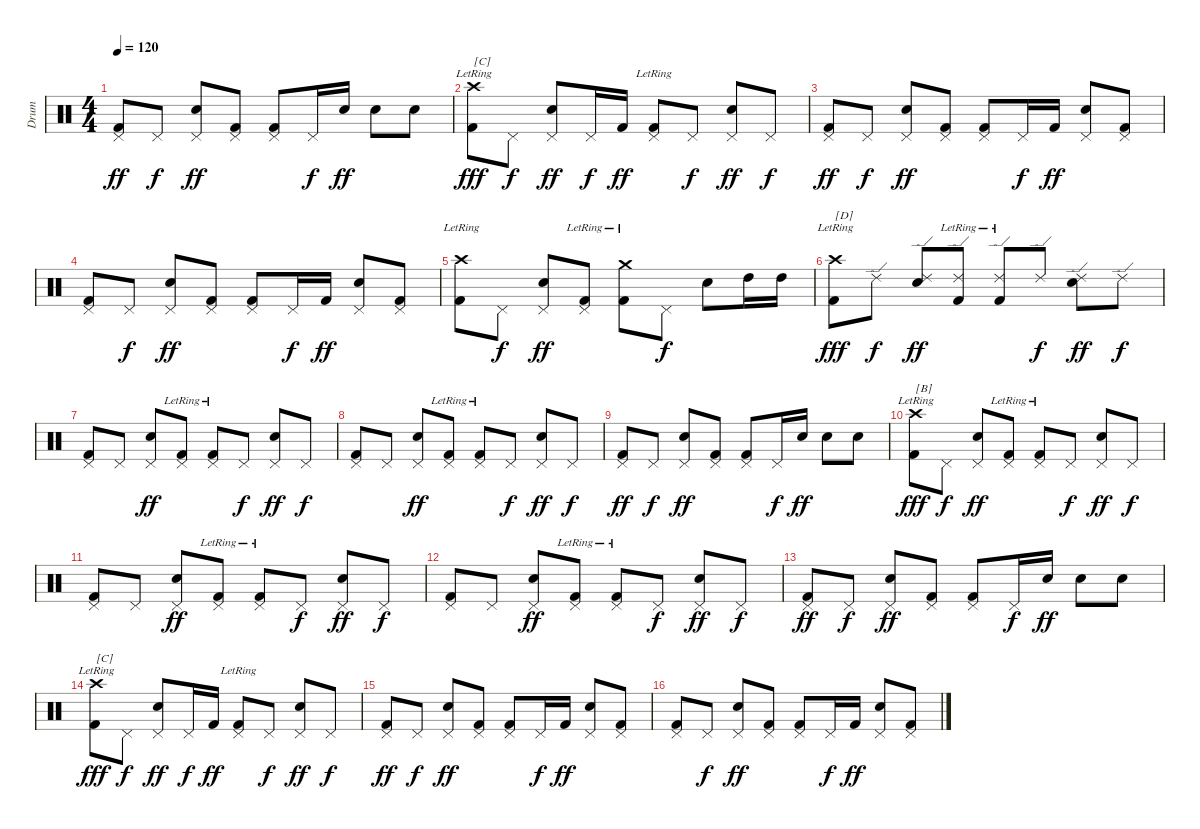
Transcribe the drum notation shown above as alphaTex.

\track ("Drum" "Drum") {instrument percussion}
\staff {score}
\articulation defaults
\ts (4 4)
\tempo 120
\clef neutral
\ks c
("Pedal Hi-Hat (hit)" "Kick (hit) 2").8{dy ff} "Pedal Hi-Hat (hit)".8{dy f} ("Pedal Hi-Hat (hit)" "Snare (hit) 2").8{dy ff} ("Pedal Hi-Hat (hit)" "Kick (hit) 2").8 ("Pedal Hi-Hat (hit)" "Kick (hit) 2").8 "Pedal Hi-Hat (hit)".16{dy f} "Snare (hit) 2".16{dy ff} "Snare (hit) 2".8 "Snare (hit) 2".8 |
("Crash high (hit)"{lr} "Kick (hit) 2"{lr}).8{txt "[C]" dy fff} "Pedal Hi-Hat (hit)".8{dy f} ("Pedal Hi-Hat (hit)" "Snare (hit) 2").8{dy ff} "Pedal Hi-Hat (hit)".16{dy f} "Kick (hit) 2".16{dy ff} ("Pedal Hi-Hat (hit)" "Kick (hit) 2"{lr}).8 "Pedal Hi-Hat (hit)".8{dy f} ("Pedal Hi-Hat (hit)" "Snare (hit) 2").8{dy ff} "Pedal Hi-Hat (hit)".8{dy f} |
("Pedal Hi-Hat (hit)" "Kick (hit) 2").8{dy ff} "Pedal Hi-Hat (hit)".8{dy f} ("Pedal Hi-Hat (hit)" "Snare (hit) 2").8{dy ff} ("Pedal Hi-Hat (hit)" "Kick (hit) 2").8 ("Pedal Hi-Hat (hit)" "Kick (hit) 2").8 "Pedal Hi-Hat (hit)".16{dy f} "Kick (hit) 2".16{dy ff} ("Pedal Hi-Hat (hit)" "Snare (hit) 2").8 ("Pedal Hi-Hat (hit)" "Kick (hit) 2").8 |
("Pedal Hi-Hat (hit)" "Kick (hit) 2").8 "Pedal Hi-Hat (hit)".8{dy f} ("Pedal Hi-Hat (hit)" "Snare (hit) 2").8{dy ff} ("Pedal Hi-Hat (hit)" "Kick (hit) 2").8 ("Pedal Hi-Hat (hit)" "Kick (hit) 2").8 "Pedal Hi-Hat (hit)".16{dy f} "Kick (hit) 2".16{dy ff} ("Pedal Hi-Hat (hit)" "Snare (hit) 2").8 ("Pedal Hi-Hat (hit)" "Kick (hit) 2").8 |
("Crash high (hit)" "Kick (hit) 2"{lr}).8 "Pedal Hi-Hat (hit)".8{dy f} ("Pedal Hi-Hat (hit)" "Snare (hit) 2").8{dy ff} ("Pedal Hi-Hat (hit)" "Kick (hit) 2"{lr}).8 ("Crash medium (hit)" "Kick (hit) 2"{lr}).8 "Pedal Hi-Hat (hit)".8{dy f} "Snare (hit) 2".8 "High Tom (hit)".16 "High Tom (hit)".16 |
("Crash high (hit)"{lr} "Kick (hit) 2"{lr}).8{txt "[D]" dy fff} "Ride (edge) 2".8{dy f} ("Ride (edge) 2" "Snare (hit) 2").8{dy ff} ("Ride (edge) 2" "Kick (hit) 2"{lr}).8 ("Ride (edge) 2" "Kick (hit) 2"{lr}).8 "Ride (edge) 2".8{dy f} ("Ride (edge) 2" "Snare (hit) 2").8{dy ff} "Ride (edge) 2".8{dy f} |
("Pedal Hi-Hat (hit)" "Kick (hit) 2").8 "Pedal Hi-Hat (hit)".8 ("Pedal Hi-Hat (hit)" "Snare (hit) 2").8{dy ff} ("Pedal Hi-Hat (hit)" "Kick (hit) 2"{lr}).8 ("Pedal Hi-Hat (hit)" "Kick (hit) 2"{lr}).8 "Pedal Hi-Hat (hit)".8{dy f} ("Pedal Hi-Hat (hit)" "Snare (hit) 2").8{dy ff} "Pedal Hi-Hat (hit)".8{dy f} |
("Pedal Hi-Hat (hit)" "Kick (hit) 2").8 "Pedal Hi-Hat (hit)".8 ("Pedal Hi-Hat (hit)" "Snare (hit) 2").8{dy ff} ("Pedal Hi-Hat (hit)" "Kick (hit) 2"{lr}).8 ("Pedal Hi-Hat (hit)" "Kick (hit) 2"{lr}).8 "Pedal Hi-Hat (hit)".8{dy f} ("Pedal Hi-Hat (hit)" "Snare (hit) 2").8{dy ff} "Pedal Hi-Hat (hit)".8{dy f} |
("Pedal Hi-Hat (hit)" "Kick (hit) 2").8{dy ff} "Pedal Hi-Hat (hit)".8{dy f} ("Pedal Hi-Hat (hit)" "Snare (hit) 2").8{dy ff} ("Pedal Hi-Hat (hit)" "Kick (hit) 2").8 ("Pedal Hi-Hat (hit)" "Kick (hit) 2").8 "Pedal Hi-Hat (hit)".16{dy f} "Snare (hit) 2".16{dy ff} "Snare (hit) 2".8 "Snare (hit) 2".8 |
("Crash high (hit)"{lr} "Kick (hit) 2"{lr}).8{txt "[B]" dy fff} "Pedal Hi-Hat (hit)".8{dy f} ("Pedal Hi-Hat (hit)" "Snare (hit) 2").8{dy ff} ("Pedal Hi-Hat (hit)" "Kick (hit) 2"{lr}).8 ("Pedal Hi-Hat (hit)" "Kick (hit) 2"{lr}).8 "Pedal Hi-Hat (hit)".8{dy f} ("Pedal Hi-Hat (hit)" "Snare (hit) 2").8{dy ff} "Pedal Hi-Hat (hit)".8{dy f} |
("Pedal Hi-Hat (hit)" "Kick (hit) 2").8 "Pedal Hi-Hat (hit)".8 ("Pedal Hi-Hat (hit)" "Snare (hit) 2").8{dy ff} ("Pedal Hi-Hat (hit)" "Kick (hit) 2"{lr}).8 ("Pedal Hi-Hat (hit)" "Kick (hit) 2"{lr}).8 "Pedal Hi-Hat (hit)".8{dy f} ("Pedal Hi-Hat (hit)" "Snare (hit) 2").8{dy ff} "Pedal Hi-Hat (hit)".8{dy f} |
("Pedal Hi-Hat (hit)" "Kick (hit) 2").8 "Pedal Hi-Hat (hit)".8 ("Pedal Hi-Hat (hit)" "Snare (hit) 2").8{dy ff} ("Pedal Hi-Hat (hit)" "Kick (hit) 2"{lr}).8 ("Pedal Hi-Hat (hit)" "Kick (hit) 2"{lr}).8 "Pedal Hi-Hat (hit)".8{dy f} ("Pedal Hi-Hat (hit)" "Snare (hit) 2").8{dy ff} "Pedal Hi-Hat (hit)".8{dy f} |
("Pedal Hi-Hat (hit)" "Kick (hit) 2").8{dy ff} "Pedal Hi-Hat (hit)".8{dy f} ("Pedal Hi-Hat (hit)" "Snare (hit) 2").8{dy ff} ("Pedal Hi-Hat (hit)" "Kick (hit) 2").8 ("Pedal Hi-Hat (hit)" "Kick (hit) 2").8 "Pedal Hi-Hat (hit)".16{dy f} "Snare (hit) 2".16{dy ff} "Snare (hit) 2".8 "Snare (hit) 2".8 |
("Crash high (hit)"{lr} "Kick (hit) 2"{lr}).8{txt "[C]" dy fff} "Pedal Hi-Hat (hit)".8{dy f} ("Pedal Hi-Hat (hit)" "Snare (hit) 2").8{dy ff} "Pedal Hi-Hat (hit)".16{dy f} "Kick (hit) 2".16{dy ff} ("Pedal Hi-Hat (hit)" "Kick (hit) 2"{lr}).8 "Pedal Hi-Hat (hit)".8{dy f} ("Pedal Hi-Hat (hit)" "Snare (hit) 2").8{dy ff} "Pedal Hi-Hat (hit)".8{dy f} |
("Pedal Hi-Hat (hit)" "Kick (hit) 2").8{dy ff} "Pedal Hi-Hat (hit)".8{dy f} ("Pedal Hi-Hat (hit)" "Snare (hit) 2").8{dy ff} ("Pedal Hi-Hat (hit)" "Kick (hit) 2").8 ("Pedal Hi-Hat (hit)" "Kick (hit) 2").8 "Pedal Hi-Hat (hit)".16{dy f} "Kick (hit) 2".16{dy ff} ("Pedal Hi-Hat (hit)" "Snare (hit) 2").8 ("Pedal Hi-Hat (hit)" "Kick (hit) 2").8 |
("Pedal Hi-Hat (hit)" "Kick (hit) 2").8 "Pedal Hi-Hat (hit)".8{dy f} ("Pedal Hi-Hat (hit)" "Snare (hit) 2").8{dy ff} ("Pedal Hi-Hat (hit)" "Kick (hit) 2").8 ("Pedal Hi-Hat (hit)" "Kick (hit) 2").8 "Pedal Hi-Hat (hit)".16{dy f} "Kick (hit) 2".16{dy ff} ("Pedal Hi-Hat (hit)" "Snare (hit) 2").8 ("Pedal Hi-Hat (hit)" "Kick (hit) 2").8
